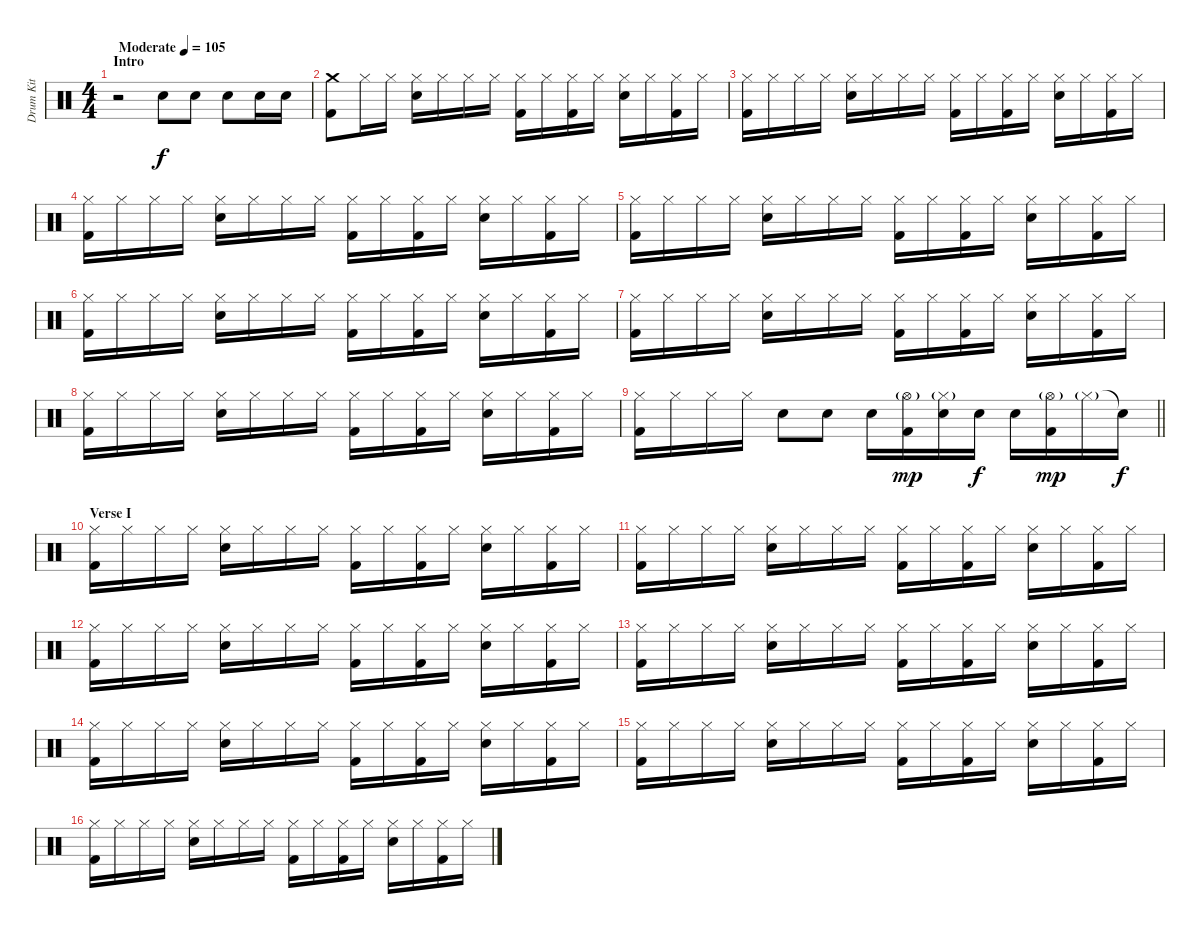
\track ("Drum Kit" "Drum Kit") {instrument percussion}
\staff {score}
\articulation defaults
\ts (4 4)
\section ("" "Intro")
\tempo (105 "Moderate")
\clef neutral
\ks c
r.2{dy f} "Electric Snare (hit)".8 "Electric Snare (hit)".8 "Electric Snare (hit)".8 "Electric Snare (hit)".16 "Electric Snare (hit)".16 |
("Crash medium (hit)" "Kick (hit) 2").8 "Hi-Hat (closed)".16 "Hi-Hat (closed)".16 ("Hi-Hat (closed)" "Electric Snare (hit)").16 "Hi-Hat (closed)".16 "Hi-Hat (closed)".16 "Hi-Hat (closed)".16 ("Hi-Hat (closed)" "Kick (hit) 2").16 "Hi-Hat (closed)".16 ("Hi-Hat (closed)" "Kick (hit) 2").16 "Hi-Hat (closed)".16 ("Hi-Hat (closed)" "Electric Snare (hit)").16 "Hi-Hat (closed)".16 ("Hi-Hat (closed)" "Kick (hit) 2").16 "Hi-Hat (closed)".16 |
("Hi-Hat (closed)" "Kick (hit) 2").16 "Hi-Hat (closed)".16 "Hi-Hat (closed)".16 "Hi-Hat (closed)".16 ("Hi-Hat (closed)" "Electric Snare (hit)").16 "Hi-Hat (closed)".16 "Hi-Hat (closed)".16 "Hi-Hat (closed)".16 ("Hi-Hat (closed)" "Kick (hit) 2").16 "Hi-Hat (closed)".16 ("Hi-Hat (closed)" "Kick (hit) 2").16 "Hi-Hat (closed)".16 ("Hi-Hat (closed)" "Electric Snare (hit)").16 "Hi-Hat (closed)".16 ("Hi-Hat (closed)" "Kick (hit) 2").16 "Hi-Hat (closed)".16 |
("Hi-Hat (closed)" "Kick (hit) 2").16 "Hi-Hat (closed)".16 "Hi-Hat (closed)".16 "Hi-Hat (closed)".16 ("Hi-Hat (closed)" "Electric Snare (hit)").16 "Hi-Hat (closed)".16 "Hi-Hat (closed)".16 "Hi-Hat (closed)".16 ("Hi-Hat (closed)" "Kick (hit) 2").16 "Hi-Hat (closed)".16 ("Hi-Hat (closed)" "Kick (hit) 2").16 "Hi-Hat (closed)".16 ("Hi-Hat (closed)" "Electric Snare (hit)").16 "Hi-Hat (closed)".16 ("Hi-Hat (closed)" "Kick (hit) 2").16 "Hi-Hat (closed)".16 |
("Hi-Hat (closed)" "Kick (hit) 2").16 "Hi-Hat (closed)".16 "Hi-Hat (closed)".16 "Hi-Hat (closed)".16 ("Hi-Hat (closed)" "Electric Snare (hit)").16 "Hi-Hat (closed)".16 "Hi-Hat (closed)".16 "Hi-Hat (closed)".16 ("Hi-Hat (closed)" "Kick (hit) 2").16 "Hi-Hat (closed)".16 ("Hi-Hat (closed)" "Kick (hit) 2").16 "Hi-Hat (closed)".16 ("Hi-Hat (closed)" "Electric Snare (hit)").16 "Hi-Hat (closed)".16 ("Hi-Hat (closed)" "Kick (hit) 2").16 "Hi-Hat (closed)".16 |
("Hi-Hat (closed)" "Kick (hit) 2").16 "Hi-Hat (closed)".16 "Hi-Hat (closed)".16 "Hi-Hat (closed)".16 ("Hi-Hat (closed)" "Electric Snare (hit)").16 "Hi-Hat (closed)".16 "Hi-Hat (closed)".16 "Hi-Hat (closed)".16 ("Hi-Hat (closed)" "Kick (hit) 2").16 "Hi-Hat (closed)".16 ("Hi-Hat (closed)" "Kick (hit) 2").16 "Hi-Hat (closed)".16 ("Hi-Hat (closed)" "Electric Snare (hit)").16 "Hi-Hat (closed)".16 ("Hi-Hat (closed)" "Kick (hit) 2").16 "Hi-Hat (closed)".16 |
("Hi-Hat (closed)" "Kick (hit) 2").16 "Hi-Hat (closed)".16 "Hi-Hat (closed)".16 "Hi-Hat (closed)".16 ("Hi-Hat (closed)" "Electric Snare (hit)").16 "Hi-Hat (closed)".16 "Hi-Hat (closed)".16 "Hi-Hat (closed)".16 ("Hi-Hat (closed)" "Kick (hit) 2").16 "Hi-Hat (closed)".16 ("Hi-Hat (closed)" "Kick (hit) 2").16 "Hi-Hat (closed)".16 ("Hi-Hat (closed)" "Electric Snare (hit)").16 "Hi-Hat (closed)".16 ("Hi-Hat (closed)" "Kick (hit) 2").16 "Hi-Hat (closed)".16 |
("Hi-Hat (closed)" "Kick (hit) 2").16 "Hi-Hat (closed)".16 "Hi-Hat (closed)".16 "Hi-Hat (closed)".16 ("Hi-Hat (closed)" "Electric Snare (hit)").16 "Hi-Hat (closed)".16 "Hi-Hat (closed)".16 "Hi-Hat (closed)".16 ("Hi-Hat (closed)" "Kick (hit) 2").16 "Hi-Hat (closed)".16 ("Hi-Hat (closed)" "Kick (hit) 2").16 "Hi-Hat (closed)".16 ("Hi-Hat (closed)" "Electric Snare (hit)").16 "Hi-Hat (closed)".16 ("Hi-Hat (closed)" "Kick (hit) 2").16 "Hi-Hat (closed)".16 |
\barLineRight lightlight
("Hi-Hat (closed)" "Kick (hit) 2").16 "Hi-Hat (closed)".16 "Hi-Hat (closed)".16 "Hi-Hat (closed)".16 "Electric Snare (hit)".8 "Electric Snare (hit)".8 "Electric Snare (hit)".16 ("Hi-Hat (open)"{g} "Kick (hit) 2").16{dy mp} ("Hi-Hat (closed)"{g} "Electric Snare (hit)").16 "Electric Snare (hit)".16{dy f} "Electric Snare (hit)".16 ("Hi-Hat (open)"{g} "Kick (hit) 2").16{dy mp} "Hi-Hat (closed)"{g}.16 "Snare (hit)"{t}.16{dy f} |
\section ("" "Verse I")
("Hi-Hat (closed)" "Kick (hit) 2").16{volume 8} "Hi-Hat (closed)".16 "Hi-Hat (closed)".16 "Hi-Hat (closed)".16 ("Hi-Hat (closed)" "Electric Snare (hit)").16 "Hi-Hat (closed)".16 "Hi-Hat (closed)".16 "Hi-Hat (closed)".16 ("Hi-Hat (closed)" "Kick (hit) 2").16 "Hi-Hat (closed)".16 ("Hi-Hat (closed)" "Kick (hit) 2").16 "Hi-Hat (closed)".16 ("Hi-Hat (closed)" "Electric Snare (hit)").16 "Hi-Hat (closed)".16 ("Hi-Hat (closed)" "Kick (hit) 2").16 "Hi-Hat (closed)".16 |
("Hi-Hat (closed)" "Kick (hit) 2").16 "Hi-Hat (closed)".16 "Hi-Hat (closed)".16 "Hi-Hat (closed)".16 ("Hi-Hat (closed)" "Electric Snare (hit)").16 "Hi-Hat (closed)".16 "Hi-Hat (closed)".16 "Hi-Hat (closed)".16 ("Hi-Hat (closed)" "Kick (hit) 2").16 "Hi-Hat (closed)".16 ("Hi-Hat (closed)" "Kick (hit) 2").16 "Hi-Hat (closed)".16 ("Hi-Hat (closed)" "Electric Snare (hit)").16 "Hi-Hat (closed)".16 ("Hi-Hat (closed)" "Kick (hit) 2").16 "Hi-Hat (closed)".16 |
("Hi-Hat (closed)" "Kick (hit) 2").16 "Hi-Hat (closed)".16 "Hi-Hat (closed)".16 "Hi-Hat (closed)".16 ("Hi-Hat (closed)" "Electric Snare (hit)").16 "Hi-Hat (closed)".16 "Hi-Hat (closed)".16 "Hi-Hat (closed)".16 ("Hi-Hat (closed)" "Kick (hit) 2").16 "Hi-Hat (closed)".16 ("Hi-Hat (closed)" "Kick (hit) 2").16 "Hi-Hat (closed)".16 ("Hi-Hat (closed)" "Electric Snare (hit)").16 "Hi-Hat (closed)".16 ("Hi-Hat (closed)" "Kick (hit) 2").16 "Hi-Hat (closed)".16 |
("Hi-Hat (closed)" "Kick (hit) 2").16 "Hi-Hat (closed)".16 "Hi-Hat (closed)".16 "Hi-Hat (closed)".16 ("Hi-Hat (closed)" "Electric Snare (hit)").16 "Hi-Hat (closed)".16 "Hi-Hat (closed)".16 "Hi-Hat (closed)".16 ("Hi-Hat (closed)" "Kick (hit) 2").16 "Hi-Hat (closed)".16 ("Hi-Hat (closed)" "Kick (hit) 2").16 "Hi-Hat (closed)".16 ("Hi-Hat (closed)" "Electric Snare (hit)").16 "Hi-Hat (closed)".16 ("Hi-Hat (closed)" "Kick (hit) 2").16 "Hi-Hat (closed)".16 |
("Hi-Hat (closed)" "Kick (hit) 2").16 "Hi-Hat (closed)".16 "Hi-Hat (closed)".16 "Hi-Hat (closed)".16 ("Hi-Hat (closed)" "Electric Snare (hit)").16 "Hi-Hat (closed)".16 "Hi-Hat (closed)".16 "Hi-Hat (closed)".16 ("Hi-Hat (closed)" "Kick (hit) 2").16 "Hi-Hat (closed)".16 ("Hi-Hat (closed)" "Kick (hit) 2").16 "Hi-Hat (closed)".16 ("Hi-Hat (closed)" "Electric Snare (hit)").16 "Hi-Hat (closed)".16 ("Hi-Hat (closed)" "Kick (hit) 2").16 "Hi-Hat (closed)".16 |
("Hi-Hat (closed)" "Kick (hit) 2").16 "Hi-Hat (closed)".16 "Hi-Hat (closed)".16 "Hi-Hat (closed)".16 ("Hi-Hat (closed)" "Electric Snare (hit)").16 "Hi-Hat (closed)".16 "Hi-Hat (closed)".16 "Hi-Hat (closed)".16 ("Hi-Hat (closed)" "Kick (hit) 2").16 "Hi-Hat (closed)".16 ("Hi-Hat (closed)" "Kick (hit) 2").16 "Hi-Hat (closed)".16 ("Hi-Hat (closed)" "Electric Snare (hit)").16 "Hi-Hat (closed)".16 ("Hi-Hat (closed)" "Kick (hit) 2").16 "Hi-Hat (closed)".16 |
("Hi-Hat (closed)" "Kick (hit) 2").16 "Hi-Hat (closed)".16 "Hi-Hat (closed)".16 "Hi-Hat (closed)".16 ("Hi-Hat (closed)" "Electric Snare (hit)").16 "Hi-Hat (closed)".16 "Hi-Hat (closed)".16 "Hi-Hat (closed)".16 ("Hi-Hat (closed)" "Kick (hit) 2").16 "Hi-Hat (closed)".16 ("Hi-Hat (closed)" "Kick (hit) 2").16 "Hi-Hat (closed)".16 ("Hi-Hat (closed)" "Electric Snare (hit)").16 "Hi-Hat (closed)".16 ("Hi-Hat (closed)" "Kick (hit) 2").16 "Hi-Hat (closed)".16
